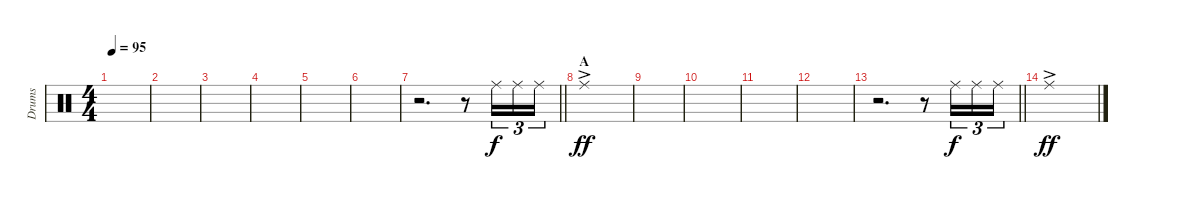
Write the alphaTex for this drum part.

\track ("Drums" "Drums") {instrument percussion}
\staff {score}
\articulation defaults
\ts (4 4)
\tempo 95
\clef neutral
\ks c
|
|
|
|
|
|
\barLineRight lightlight
r.2{d} r.8 "Ride (middle)".16{tu (3 2)} "Ride (middle)".16{tu (3 2)} "Ride (middle)".16{tu (3 2)} |
\section ("" "A")
"Ride (middle)"{ac}.1{dy ff} |
|
|
|
|
\barLineRight lightlight
r.2{d} r.8 "Ride (middle)".16{tu (3 2) dy f} "Ride (middle)".16{tu (3 2)} "Ride (middle)".16{tu (3 2)} |
"Ride (middle)"{ac}.1{dy ff}
